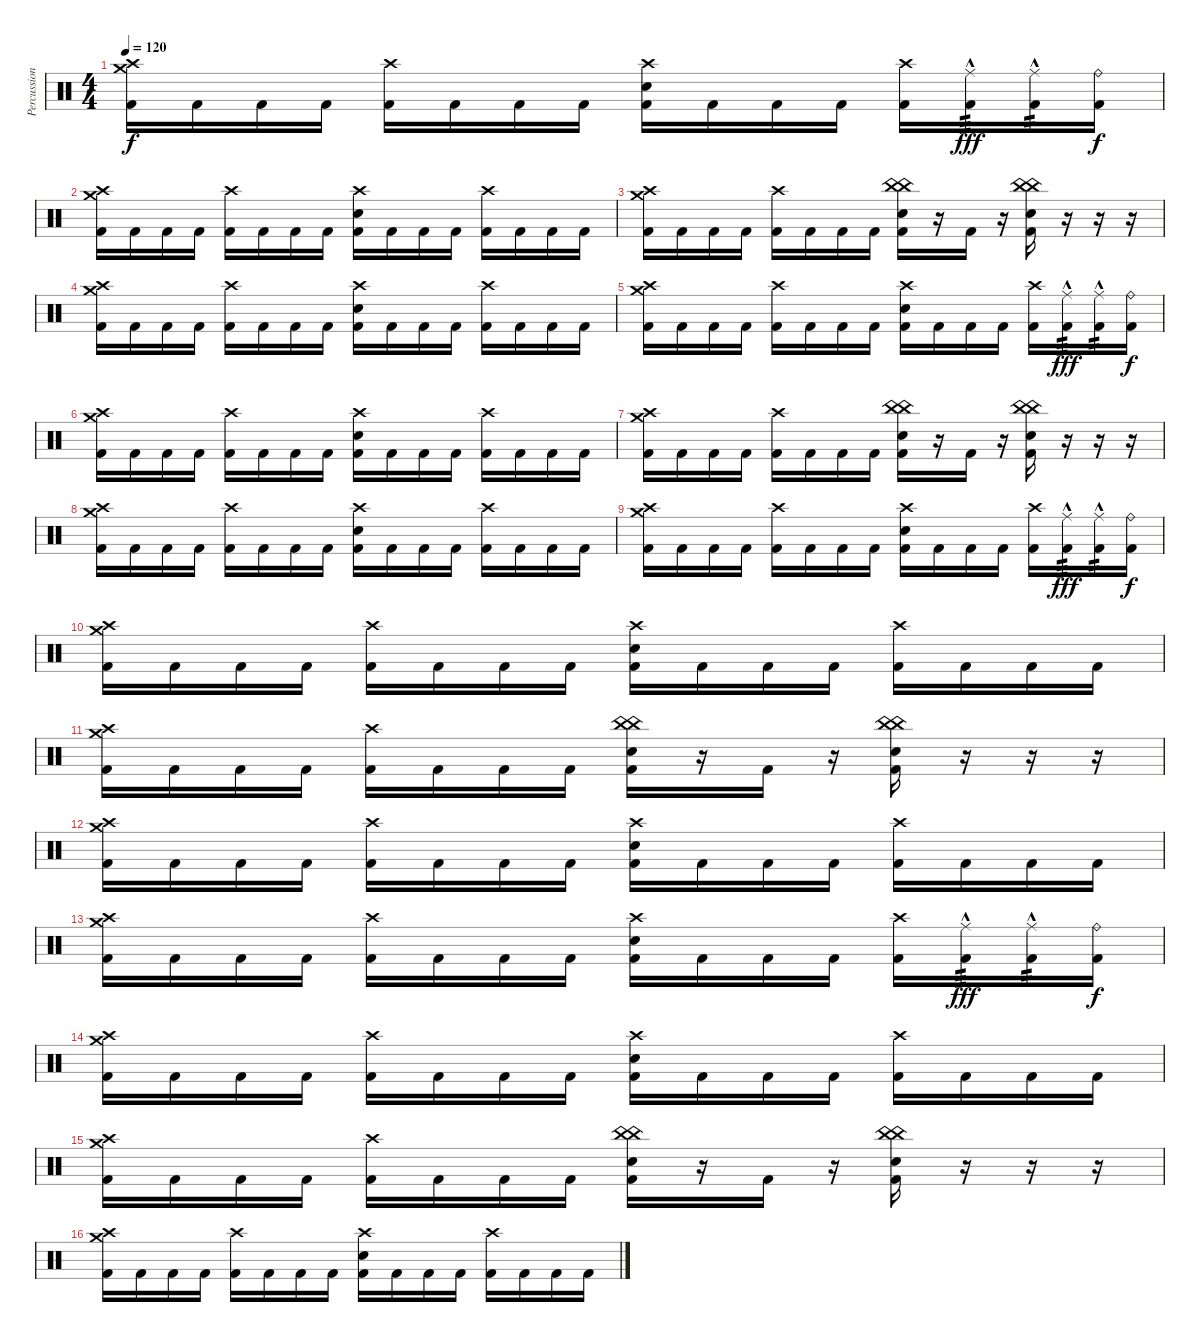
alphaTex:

\track ("Percussion" "Percussion") {instrument percussion bank 177}
\staff
\articulation defaults
\ts (4 4)
\tempo 120
\clef neutral
\ks c
("Crash medium (hit)" "Crash high (hit)" "Kick (hit) 2").16{dy f} "Kick (hit) 2".16 "Kick (hit) 2".16 "Kick (hit) 2".16 ("Crash high (hit)" "Kick (hit) 2").16 "Kick (hit) 2".16 "Kick (hit) 2".16 "Kick (hit) 2".16 ("Crash high (hit)" "Electric Snare (hit)" "Kick (hit) 2").16 "Kick (hit) 2".16 "Kick (hit) 2".16 "Kick (hit) 2".16 ("Crash high (hit)" "Kick (hit) 2").16 ("Ride (middle)"{hac} "Kick (hit) 2").16{tp 3 dy fff} ("Ride (middle)"{hac} "Kick (hit) 2").16{tp 2} ("Ride (bell)" "Kick (hit) 2").16{dy f} |
("Crash medium (hit)" "Crash high (hit)" "Kick (hit) 2").16 "Kick (hit) 2".16 "Kick (hit) 2".16 "Kick (hit) 2".16 ("Crash high (hit)" "Kick (hit) 2").16 "Kick (hit) 2".16 "Kick (hit) 2".16 "Kick (hit) 2".16 ("Crash high (hit)" "Electric Snare (hit)" "Kick (hit) 2").16 "Kick (hit) 2".16 "Kick (hit) 2".16 "Kick (hit) 2".16 ("Crash high (hit)" "Kick (hit) 2").16 "Kick (hit) 2".16 "Kick (hit) 2".16 "Kick (hit) 2".16 |
("Crash medium (hit)" "Crash high (hit)" "Kick (hit) 2").16 "Kick (hit) 2".16 "Kick (hit) 2".16 "Kick (hit) 2".16 ("Crash high (hit)" "Kick (hit) 2").16 "Kick (hit) 2".16 "Kick (hit) 2".16 "Kick (hit) 2".16 ("China (hit)" "China (hit)" "Electric Snare (hit)" "Kick (hit) 2").16 r.16 "Kick (hit) 2".16 r.16 ("China (hit)" "China (hit)" "Electric Snare (hit)" "Kick (hit) 2").16 r.16 r.16 r.16 |
("Crash medium (hit)" "Crash high (hit)" "Kick (hit) 2").16 "Kick (hit) 2".16 "Kick (hit) 2".16 "Kick (hit) 2".16 ("Crash high (hit)" "Kick (hit) 2").16 "Kick (hit) 2".16 "Kick (hit) 2".16 "Kick (hit) 2".16 ("Crash high (hit)" "Electric Snare (hit)" "Kick (hit) 2").16 "Kick (hit) 2".16 "Kick (hit) 2".16 "Kick (hit) 2".16 ("Crash high (hit)" "Kick (hit) 2").16 "Kick (hit) 2".16 "Kick (hit) 2".16 "Kick (hit) 2".16 |
("Crash medium (hit)" "Crash high (hit)" "Kick (hit) 2").16 "Kick (hit) 2".16 "Kick (hit) 2".16 "Kick (hit) 2".16 ("Crash high (hit)" "Kick (hit) 2").16 "Kick (hit) 2".16 "Kick (hit) 2".16 "Kick (hit) 2".16 ("Crash high (hit)" "Electric Snare (hit)" "Kick (hit) 2").16 "Kick (hit) 2".16 "Kick (hit) 2".16 "Kick (hit) 2".16 ("Crash high (hit)" "Kick (hit) 2").16 ("Ride (middle)"{hac} "Kick (hit) 2").16{tp 3 dy fff} ("Ride (middle)"{hac} "Kick (hit) 2").16{tp 2} ("Ride (bell)" "Kick (hit) 2").16{dy f} |
("Crash medium (hit)" "Crash high (hit)" "Kick (hit) 2").16 "Kick (hit) 2".16 "Kick (hit) 2".16 "Kick (hit) 2".16 ("Crash high (hit)" "Kick (hit) 2").16 "Kick (hit) 2".16 "Kick (hit) 2".16 "Kick (hit) 2".16 ("Crash high (hit)" "Electric Snare (hit)" "Kick (hit) 2").16 "Kick (hit) 2".16 "Kick (hit) 2".16 "Kick (hit) 2".16 ("Crash high (hit)" "Kick (hit) 2").16 "Kick (hit) 2".16 "Kick (hit) 2".16 "Kick (hit) 2".16 |
("Crash medium (hit)" "Crash high (hit)" "Kick (hit) 2").16 "Kick (hit) 2".16 "Kick (hit) 2".16 "Kick (hit) 2".16 ("Crash high (hit)" "Kick (hit) 2").16 "Kick (hit) 2".16 "Kick (hit) 2".16 "Kick (hit) 2".16 ("China (hit)" "China (hit)" "Electric Snare (hit)" "Kick (hit) 2").16 r.16 "Kick (hit) 2".16 r.16 ("China (hit)" "China (hit)" "Electric Snare (hit)" "Kick (hit) 2").16 r.16 r.16 r.16 |
("Crash medium (hit)" "Crash high (hit)" "Kick (hit) 2").16 "Kick (hit) 2".16 "Kick (hit) 2".16 "Kick (hit) 2".16 ("Crash high (hit)" "Kick (hit) 2").16 "Kick (hit) 2".16 "Kick (hit) 2".16 "Kick (hit) 2".16 ("Crash high (hit)" "Electric Snare (hit)" "Kick (hit) 2").16 "Kick (hit) 2".16 "Kick (hit) 2".16 "Kick (hit) 2".16 ("Crash high (hit)" "Kick (hit) 2").16 "Kick (hit) 2".16 "Kick (hit) 2".16 "Kick (hit) 2".16 |
("Crash medium (hit)" "Crash high (hit)" "Kick (hit) 2").16 "Kick (hit) 2".16 "Kick (hit) 2".16 "Kick (hit) 2".16 ("Crash high (hit)" "Kick (hit) 2").16 "Kick (hit) 2".16 "Kick (hit) 2".16 "Kick (hit) 2".16 ("Crash high (hit)" "Electric Snare (hit)" "Kick (hit) 2").16 "Kick (hit) 2".16 "Kick (hit) 2".16 "Kick (hit) 2".16 ("Crash high (hit)" "Kick (hit) 2").16 ("Ride (middle)"{hac} "Kick (hit) 2").16{tp 3 dy fff} ("Ride (middle)"{hac} "Kick (hit) 2").16{tp 2} ("Ride (bell)" "Kick (hit) 2").16{dy f} |
("Crash medium (hit)" "Crash high (hit)" "Kick (hit) 2").16 "Kick (hit) 2".16 "Kick (hit) 2".16 "Kick (hit) 2".16 ("Crash high (hit)" "Kick (hit) 2").16 "Kick (hit) 2".16 "Kick (hit) 2".16 "Kick (hit) 2".16 ("Crash high (hit)" "Electric Snare (hit)" "Kick (hit) 2").16 "Kick (hit) 2".16 "Kick (hit) 2".16 "Kick (hit) 2".16 ("Crash high (hit)" "Kick (hit) 2").16 "Kick (hit) 2".16 "Kick (hit) 2".16 "Kick (hit) 2".16 |
("Crash medium (hit)" "Crash high (hit)" "Kick (hit) 2").16 "Kick (hit) 2".16 "Kick (hit) 2".16 "Kick (hit) 2".16 ("Crash high (hit)" "Kick (hit) 2").16 "Kick (hit) 2".16 "Kick (hit) 2".16 "Kick (hit) 2".16 ("China (hit)" "China (hit)" "Electric Snare (hit)" "Kick (hit) 2").16 r.16 "Kick (hit) 2".16 r.16 ("China (hit)" "China (hit)" "Electric Snare (hit)" "Kick (hit) 2").16 r.16 r.16 r.16 |
("Crash medium (hit)" "Crash high (hit)" "Kick (hit) 2").16 "Kick (hit) 2".16 "Kick (hit) 2".16 "Kick (hit) 2".16 ("Crash high (hit)" "Kick (hit) 2").16 "Kick (hit) 2".16 "Kick (hit) 2".16 "Kick (hit) 2".16 ("Crash high (hit)" "Electric Snare (hit)" "Kick (hit) 2").16 "Kick (hit) 2".16 "Kick (hit) 2".16 "Kick (hit) 2".16 ("Crash high (hit)" "Kick (hit) 2").16 "Kick (hit) 2".16 "Kick (hit) 2".16 "Kick (hit) 2".16 |
("Crash medium (hit)" "Crash high (hit)" "Kick (hit) 2").16 "Kick (hit) 2".16 "Kick (hit) 2".16 "Kick (hit) 2".16 ("Crash high (hit)" "Kick (hit) 2").16 "Kick (hit) 2".16 "Kick (hit) 2".16 "Kick (hit) 2".16 ("Crash high (hit)" "Electric Snare (hit)" "Kick (hit) 2").16 "Kick (hit) 2".16 "Kick (hit) 2".16 "Kick (hit) 2".16 ("Crash high (hit)" "Kick (hit) 2").16 ("Ride (middle)"{hac} "Kick (hit) 2").16{tp 3 dy fff} ("Ride (middle)"{hac} "Kick (hit) 2").16{tp 2} ("Ride (bell)" "Kick (hit) 2").16{dy f} |
("Crash medium (hit)" "Crash high (hit)" "Kick (hit) 2").16 "Kick (hit) 2".16 "Kick (hit) 2".16 "Kick (hit) 2".16 ("Crash high (hit)" "Kick (hit) 2").16 "Kick (hit) 2".16 "Kick (hit) 2".16 "Kick (hit) 2".16 ("Crash high (hit)" "Electric Snare (hit)" "Kick (hit) 2").16 "Kick (hit) 2".16 "Kick (hit) 2".16 "Kick (hit) 2".16 ("Crash high (hit)" "Kick (hit) 2").16 "Kick (hit) 2".16 "Kick (hit) 2".16 "Kick (hit) 2".16 |
("Crash medium (hit)" "Crash high (hit)" "Kick (hit) 2").16 "Kick (hit) 2".16 "Kick (hit) 2".16 "Kick (hit) 2".16 ("Crash high (hit)" "Kick (hit) 2").16 "Kick (hit) 2".16 "Kick (hit) 2".16 "Kick (hit) 2".16 ("China (hit)" "China (hit)" "Electric Snare (hit)" "Kick (hit) 2").16 r.16 "Kick (hit) 2".16 r.16 ("China (hit)" "China (hit)" "Electric Snare (hit)" "Kick (hit) 2").16 r.16 r.16 r.16 |
("Crash medium (hit)" "Crash high (hit)" "Kick (hit) 2").16 "Kick (hit) 2".16 "Kick (hit) 2".16 "Kick (hit) 2".16 ("Crash high (hit)" "Kick (hit) 2").16 "Kick (hit) 2".16 "Kick (hit) 2".16 "Kick (hit) 2".16 ("Crash high (hit)" "Electric Snare (hit)" "Kick (hit) 2").16 "Kick (hit) 2".16 "Kick (hit) 2".16 "Kick (hit) 2".16 ("Crash high (hit)" "Kick (hit) 2").16 "Kick (hit) 2".16 "Kick (hit) 2".16 "Kick (hit) 2".16
